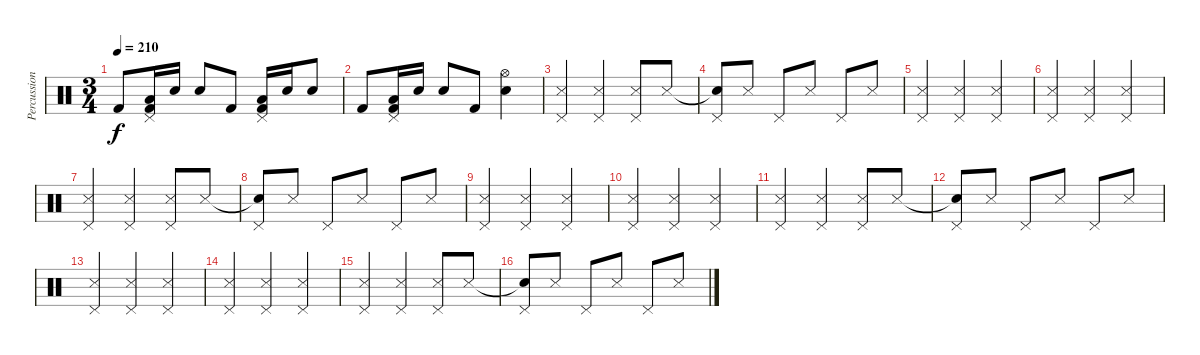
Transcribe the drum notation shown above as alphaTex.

\track ("Percussion" "Percussion") {instrument percussion}
\staff
\articulation defaults
\ts (3 4)
\tempo 210
\clef neutral
\ks c "Kick (hit) 2".8{dy f}
("Pedal Hi-Hat (hit)" "Low Tom (hit)" "Kick (hit) 2").16 "Electric Snare (hit)".16 "Electric Snare (hit)".8 "Kick (hit) 2".8 ("Pedal Hi-Hat (hit)" "Low Floor Tom (hit)" "Kick (hit) 2").16 "Electric Snare (hit)".16 "Electric Snare (hit)".8 |
"Kick (hit) 2".8 ("Pedal Hi-Hat (hit)" "Low Tom (hit)" "Kick (hit) 2").16 "Electric Snare (hit)".16 "Electric Snare (hit)".8 "Kick (hit) 2".8 ("Hi-Hat (open)" "Electric Snare (hit)").4 |
("Snare (side stick) 3" "Pedal Hi-Hat (hit)").4 ("Snare (side stick) 3" "Pedal Hi-Hat (hit)").4 ("Snare (side stick) 3" "Pedal Hi-Hat (hit)").8 "Snare (side stick) 3".8 |
("Snare (hit)"{t} "Pedal Hi-Hat (hit)").8 "Snare (side stick) 3".8 "Pedal Hi-Hat (hit)".8 "Snare (side stick) 3".8 "Pedal Hi-Hat (hit)".8 "Snare (side stick) 3".8 |
("Snare (side stick) 3" "Pedal Hi-Hat (hit)").4 ("Snare (side stick) 3" "Pedal Hi-Hat (hit)").4 ("Snare (side stick) 3" "Pedal Hi-Hat (hit)").4 |
("Snare (side stick) 3" "Pedal Hi-Hat (hit)").4 ("Snare (side stick) 3" "Pedal Hi-Hat (hit)").4 ("Snare (side stick) 3" "Pedal Hi-Hat (hit)").4 |
("Snare (side stick) 3" "Pedal Hi-Hat (hit)").4 ("Snare (side stick) 3" "Pedal Hi-Hat (hit)").4 ("Snare (side stick) 3" "Pedal Hi-Hat (hit)").8 "Snare (side stick) 3".8 |
("Snare (hit)"{t} "Pedal Hi-Hat (hit)").8 "Snare (side stick) 3".8 "Pedal Hi-Hat (hit)".8 "Snare (side stick) 3".8 "Pedal Hi-Hat (hit)".8 "Snare (side stick) 3".8 |
("Snare (side stick) 3" "Pedal Hi-Hat (hit)").4 ("Snare (side stick) 3" "Pedal Hi-Hat (hit)").4 ("Snare (side stick) 3" "Pedal Hi-Hat (hit)").4 |
("Snare (side stick) 3" "Pedal Hi-Hat (hit)").4 ("Snare (side stick) 3" "Pedal Hi-Hat (hit)").4 ("Snare (side stick) 3" "Pedal Hi-Hat (hit)").4 |
("Snare (side stick) 3" "Pedal Hi-Hat (hit)").4 ("Snare (side stick) 3" "Pedal Hi-Hat (hit)").4 ("Snare (side stick) 3" "Pedal Hi-Hat (hit)").8 "Snare (side stick) 3".8 |
("Snare (hit)"{t} "Pedal Hi-Hat (hit)").8 "Snare (side stick) 3".8 "Pedal Hi-Hat (hit)".8 "Snare (side stick) 3".8 "Pedal Hi-Hat (hit)".8 "Snare (side stick) 3".8 |
("Snare (side stick) 3" "Pedal Hi-Hat (hit)").4 ("Snare (side stick) 3" "Pedal Hi-Hat (hit)").4 ("Snare (side stick) 3" "Pedal Hi-Hat (hit)").4 |
("Snare (side stick) 3" "Pedal Hi-Hat (hit)").4 ("Snare (side stick) 3" "Pedal Hi-Hat (hit)").4 ("Snare (side stick) 3" "Pedal Hi-Hat (hit)").4 |
("Snare (side stick) 3" "Pedal Hi-Hat (hit)").4 ("Snare (side stick) 3" "Pedal Hi-Hat (hit)").4 ("Snare (side stick) 3" "Pedal Hi-Hat (hit)").8 "Snare (side stick) 3".8 |
("Snare (hit)"{t} "Pedal Hi-Hat (hit)").8 "Snare (side stick) 3".8 "Pedal Hi-Hat (hit)".8 "Snare (side stick) 3".8 "Pedal Hi-Hat (hit)".8 "Snare (side stick) 3".8
